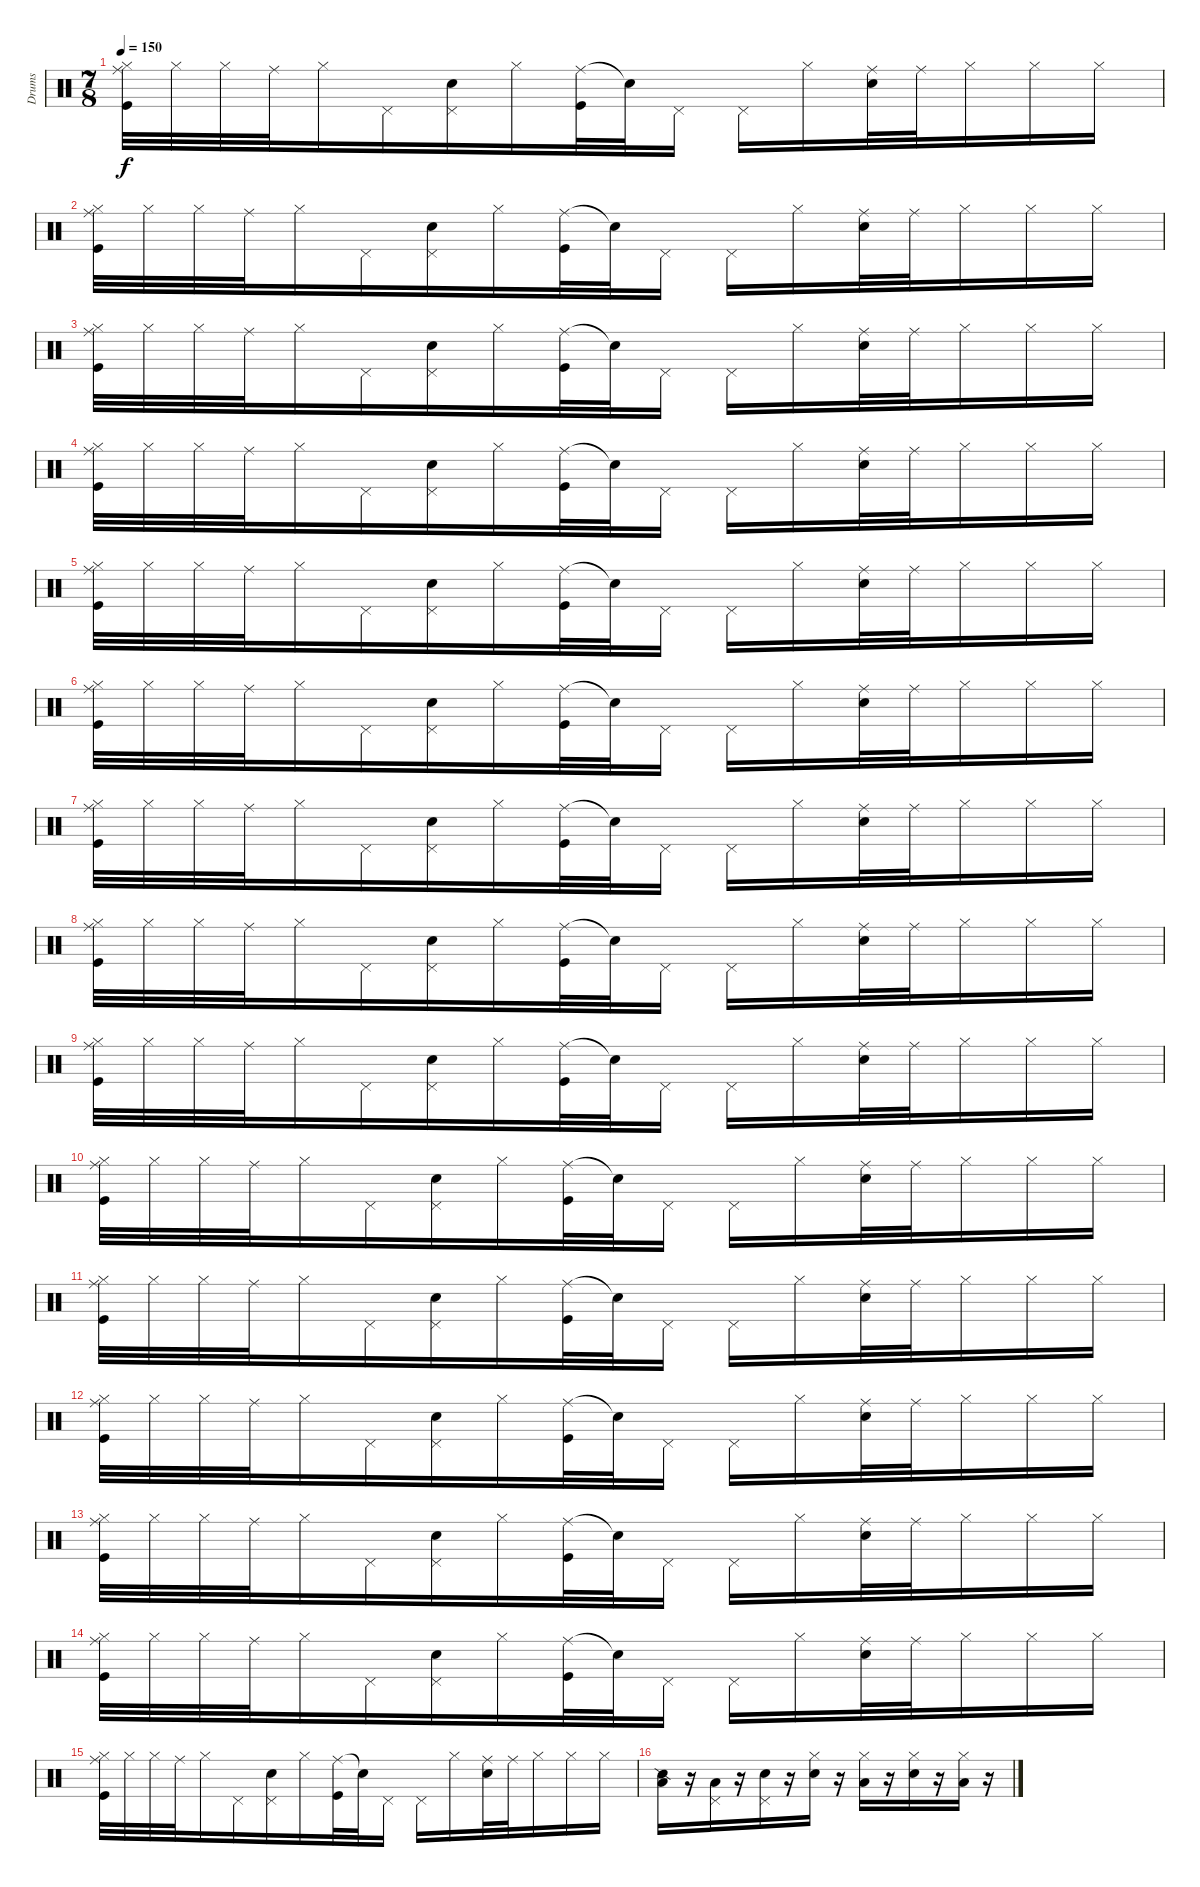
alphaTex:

\track ("Drums" "Drums") {instrument percussion}
\staff {score}
\articulation defaults
\ts (7 8)
\tempo 150
\clef neutral
\ks c
("Hi-Hat (closed)" "Ride (middle)" "Kick (hit)").32{dy f} "Hi-Hat (closed)".32 "Hi-Hat (closed)".32 "Ride (middle)".32 "Hi-Hat (closed)".16 "Pedal Hi-Hat (hit)".16 ("Pedal Hi-Hat (hit)" "Snare (hit) 2").16 "Hi-Hat (closed)".16 ("Ride (middle)" "Kick (hit)").32 "Snare (hit)"{t}.32 "Pedal Hi-Hat (hit)".16 "Pedal Hi-Hat (hit)".16 "Hi-Hat (closed)".16 ("Ride (middle)" "Snare (hit) 2").32 "Ride (middle)".32 "Hi-Hat (closed)".16 "Hi-Hat (closed)".16 "Hi-Hat (closed)".16 |
("Hi-Hat (closed)" "Ride (middle)" "Kick (hit)").32 "Hi-Hat (closed)".32 "Hi-Hat (closed)".32 "Ride (middle)".32 "Hi-Hat (closed)".16 "Pedal Hi-Hat (hit)".16 ("Pedal Hi-Hat (hit)" "Snare (hit) 2").16 "Hi-Hat (closed)".16 ("Ride (middle)" "Kick (hit)").32 "Snare (hit)"{t}.32 "Pedal Hi-Hat (hit)".16 "Pedal Hi-Hat (hit)".16 "Hi-Hat (closed)".16 ("Ride (middle)" "Snare (hit) 2").32 "Ride (middle)".32 "Hi-Hat (closed)".16 "Hi-Hat (closed)".16 "Hi-Hat (closed)".16 |
("Hi-Hat (closed)" "Ride (middle)" "Kick (hit)").32 "Hi-Hat (closed)".32 "Hi-Hat (closed)".32 "Ride (middle)".32 "Hi-Hat (closed)".16 "Pedal Hi-Hat (hit)".16 ("Pedal Hi-Hat (hit)" "Snare (hit) 2").16 "Hi-Hat (closed)".16 ("Ride (middle)" "Kick (hit)").32 "Snare (hit)"{t}.32 "Pedal Hi-Hat (hit)".16 "Pedal Hi-Hat (hit)".16 "Hi-Hat (closed)".16 ("Ride (middle)" "Snare (hit) 2").32 "Ride (middle)".32 "Hi-Hat (closed)".16 "Hi-Hat (closed)".16 "Hi-Hat (closed)".16 |
("Hi-Hat (closed)" "Ride (middle)" "Kick (hit)").32 "Hi-Hat (closed)".32 "Hi-Hat (closed)".32 "Ride (middle)".32 "Hi-Hat (closed)".16 "Pedal Hi-Hat (hit)".16 ("Pedal Hi-Hat (hit)" "Snare (hit) 2").16 "Hi-Hat (closed)".16 ("Ride (middle)" "Kick (hit)").32 "Snare (hit)"{t}.32 "Pedal Hi-Hat (hit)".16 "Pedal Hi-Hat (hit)".16 "Hi-Hat (closed)".16 ("Ride (middle)" "Snare (hit) 2").32 "Ride (middle)".32 "Hi-Hat (closed)".16 "Hi-Hat (closed)".16 "Hi-Hat (closed)".16 |
("Hi-Hat (closed)" "Ride (middle)" "Kick (hit)").32 "Hi-Hat (closed)".32 "Hi-Hat (closed)".32 "Ride (middle)".32 "Hi-Hat (closed)".16 "Pedal Hi-Hat (hit)".16 ("Pedal Hi-Hat (hit)" "Snare (hit) 2").16 "Hi-Hat (closed)".16 ("Ride (middle)" "Kick (hit)").32 "Snare (hit)"{t}.32 "Pedal Hi-Hat (hit)".16 "Pedal Hi-Hat (hit)".16 "Hi-Hat (closed)".16 ("Ride (middle)" "Snare (hit) 2").32 "Ride (middle)".32 "Hi-Hat (closed)".16 "Hi-Hat (closed)".16 "Hi-Hat (closed)".16 |
("Hi-Hat (closed)" "Ride (middle)" "Kick (hit)").32 "Hi-Hat (closed)".32 "Hi-Hat (closed)".32 "Ride (middle)".32 "Hi-Hat (closed)".16 "Pedal Hi-Hat (hit)".16 ("Pedal Hi-Hat (hit)" "Snare (hit) 2").16 "Hi-Hat (closed)".16 ("Ride (middle)" "Kick (hit)").32 "Snare (hit)"{t}.32 "Pedal Hi-Hat (hit)".16 "Pedal Hi-Hat (hit)".16 "Hi-Hat (closed)".16 ("Ride (middle)" "Snare (hit) 2").32 "Ride (middle)".32 "Hi-Hat (closed)".16 "Hi-Hat (closed)".16 "Hi-Hat (closed)".16 |
("Hi-Hat (closed)" "Ride (middle)" "Kick (hit)").32 "Hi-Hat (closed)".32 "Hi-Hat (closed)".32 "Ride (middle)".32 "Hi-Hat (closed)".16 "Pedal Hi-Hat (hit)".16 ("Pedal Hi-Hat (hit)" "Snare (hit) 2").16 "Hi-Hat (closed)".16 ("Ride (middle)" "Kick (hit)").32 "Snare (hit)"{t}.32 "Pedal Hi-Hat (hit)".16 "Pedal Hi-Hat (hit)".16 "Hi-Hat (closed)".16 ("Ride (middle)" "Snare (hit) 2").32 "Ride (middle)".32 "Hi-Hat (closed)".16 "Hi-Hat (closed)".16 "Hi-Hat (closed)".16 |
("Hi-Hat (closed)" "Ride (middle)" "Kick (hit)").32 "Hi-Hat (closed)".32 "Hi-Hat (closed)".32 "Ride (middle)".32 "Hi-Hat (closed)".16 "Pedal Hi-Hat (hit)".16 ("Pedal Hi-Hat (hit)" "Snare (hit) 2").16 "Hi-Hat (closed)".16 ("Ride (middle)" "Kick (hit)").32 "Snare (hit)"{t}.32 "Pedal Hi-Hat (hit)".16 "Pedal Hi-Hat (hit)".16 "Hi-Hat (closed)".16 ("Ride (middle)" "Snare (hit) 2").32 "Ride (middle)".32 "Hi-Hat (closed)".16 "Hi-Hat (closed)".16 "Hi-Hat (closed)".16 |
("Hi-Hat (closed)" "Ride (middle)" "Kick (hit)").32 "Hi-Hat (closed)".32 "Hi-Hat (closed)".32 "Ride (middle)".32 "Hi-Hat (closed)".16 "Pedal Hi-Hat (hit)".16 ("Pedal Hi-Hat (hit)" "Snare (hit) 2").16 "Hi-Hat (closed)".16 ("Ride (middle)" "Kick (hit)").32 "Snare (hit)"{t}.32 "Pedal Hi-Hat (hit)".16 "Pedal Hi-Hat (hit)".16 "Hi-Hat (closed)".16 ("Ride (middle)" "Snare (hit) 2").32 "Ride (middle)".32 "Hi-Hat (closed)".16 "Hi-Hat (closed)".16 "Hi-Hat (closed)".16 |
("Hi-Hat (closed)" "Ride (middle)" "Kick (hit)").32 "Hi-Hat (closed)".32 "Hi-Hat (closed)".32 "Ride (middle)".32 "Hi-Hat (closed)".16 "Pedal Hi-Hat (hit)".16 ("Pedal Hi-Hat (hit)" "Snare (hit) 2").16 "Hi-Hat (closed)".16 ("Ride (middle)" "Kick (hit)").32 "Snare (hit)"{t}.32 "Pedal Hi-Hat (hit)".16 "Pedal Hi-Hat (hit)".16 "Hi-Hat (closed)".16 ("Ride (middle)" "Snare (hit) 2").32 "Ride (middle)".32 "Hi-Hat (closed)".16 "Hi-Hat (closed)".16 "Hi-Hat (closed)".16 |
("Hi-Hat (closed)" "Ride (middle)" "Kick (hit)").32 "Hi-Hat (closed)".32 "Hi-Hat (closed)".32 "Ride (middle)".32 "Hi-Hat (closed)".16 "Pedal Hi-Hat (hit)".16 ("Pedal Hi-Hat (hit)" "Snare (hit) 2").16 "Hi-Hat (closed)".16 ("Ride (middle)" "Kick (hit)").32 "Snare (hit)"{t}.32 "Pedal Hi-Hat (hit)".16 "Pedal Hi-Hat (hit)".16 "Hi-Hat (closed)".16 ("Ride (middle)" "Snare (hit) 2").32 "Ride (middle)".32 "Hi-Hat (closed)".16 "Hi-Hat (closed)".16 "Hi-Hat (closed)".16 |
("Hi-Hat (closed)" "Ride (middle)" "Kick (hit)").32 "Hi-Hat (closed)".32 "Hi-Hat (closed)".32 "Ride (middle)".32 "Hi-Hat (closed)".16 "Pedal Hi-Hat (hit)".16 ("Pedal Hi-Hat (hit)" "Snare (hit) 2").16 "Hi-Hat (closed)".16 ("Ride (middle)" "Kick (hit)").32 "Snare (hit)"{t}.32 "Pedal Hi-Hat (hit)".16 "Pedal Hi-Hat (hit)".16 "Hi-Hat (closed)".16 ("Ride (middle)" "Snare (hit) 2").32 "Ride (middle)".32 "Hi-Hat (closed)".16 "Hi-Hat (closed)".16 "Hi-Hat (closed)".16 |
("Hi-Hat (closed)" "Ride (middle)" "Kick (hit)").32 "Hi-Hat (closed)".32 "Hi-Hat (closed)".32 "Ride (middle)".32 "Hi-Hat (closed)".16 "Pedal Hi-Hat (hit)".16 ("Pedal Hi-Hat (hit)" "Snare (hit) 2").16 "Hi-Hat (closed)".16 ("Ride (middle)" "Kick (hit)").32 "Snare (hit)"{t}.32 "Pedal Hi-Hat (hit)".16 "Pedal Hi-Hat (hit)".16 "Hi-Hat (closed)".16 ("Ride (middle)" "Snare (hit) 2").32 "Ride (middle)".32 "Hi-Hat (closed)".16 "Hi-Hat (closed)".16 "Hi-Hat (closed)".16 |
("Hi-Hat (closed)" "Ride (middle)" "Kick (hit)").32 "Hi-Hat (closed)".32 "Hi-Hat (closed)".32 "Ride (middle)".32 "Hi-Hat (closed)".16 "Pedal Hi-Hat (hit)".16 ("Pedal Hi-Hat (hit)" "Snare (hit) 2").16 "Hi-Hat (closed)".16 ("Ride (middle)" "Kick (hit)").32 "Snare (hit)"{t}.32 "Pedal Hi-Hat (hit)".16 "Pedal Hi-Hat (hit)".16 "Hi-Hat (closed)".16 ("Ride (middle)" "Snare (hit) 2").32 "Ride (middle)".32 "Hi-Hat (closed)".16 "Hi-Hat (closed)".16 "Hi-Hat (closed)".16 |
("Hi-Hat (closed)" "Ride (middle)" "Kick (hit)").32 "Hi-Hat (closed)".32 "Hi-Hat (closed)".32 "Ride (middle)".32 "Hi-Hat (closed)".16 "Pedal Hi-Hat (hit)".16 ("Pedal Hi-Hat (hit)" "Snare (hit) 2").16 "Hi-Hat (closed)".16 ("Ride (middle)" "Kick (hit)").32 "Snare (hit)"{t}.32 "Pedal Hi-Hat (hit)".16 "Pedal Hi-Hat (hit)".16 "Hi-Hat (closed)".16 ("Ride (middle)" "Snare (hit) 2").32 "Ride (middle)".32 "Hi-Hat (closed)".16 "Hi-Hat (closed)".16 "Hi-Hat (closed)".16 |
("Low Tom (hit)" "Snare (side stick) 2").16 r.16 ("Pedal Hi-Hat (hit)" "Low Tom (hit)").16 r.16 ("Pedal Hi-Hat (hit)" "Snare (hit) 2").16 r.16 ("Hi-Hat (closed)" "Snare (hit) 2").16 r.16 ("Hi-Hat (closed)" "Low Tom (hit)").16 r.16 ("Hi-Hat (closed)" "Snare (hit) 2").16 r.16 ("Hi-Hat (closed)" "Low Tom (hit)").16 r.16
